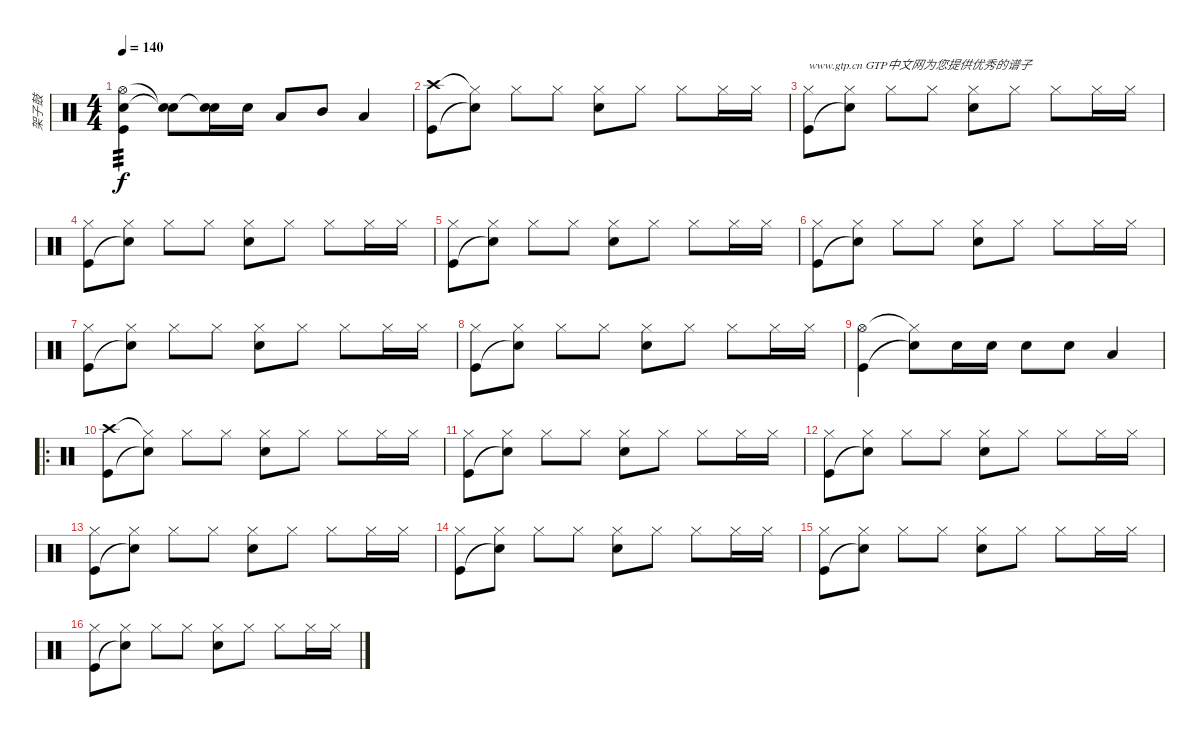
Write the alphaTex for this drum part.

\track ("架子鼓" "架子鼓") {instrument percussion}
\staff {score}
\articulation defaults
\ts (4 4)
\tempo 140
\clef neutral
\ks c
("Hi-Hat (open)" "Snare (hit) 2" "Kick (hit)").4{tp 3 dy f} ("Snare (hit)"{t} "Snare (hit)"{t}).8 ("Snare (hit)"{t} "Snare (hit) 2").16 "Snare (hit) 2".16 "Low Tom (hit)".8 "Mid Tom (hit)".8 "Low Tom (hit)".4 |
("Crash high (hit)" "Kick (hit)").8 ("Hi-Hat (closed)"{t} "Snare (hit)"{t}).8 "Hi-Hat (closed)".8 "Hi-Hat (closed)".8 ("Hi-Hat (closed)" "Snare (hit) 2").8 "Hi-Hat (closed)".8 "Hi-Hat (closed)".8 "Hi-Hat (closed)".16 "Hi-Hat (closed)".16 |
("Hi-Hat (closed)" "Kick (hit)").8{txt "www.gtp.cn GTP中文网为您提供优秀的谱子"} ("Hi-Hat (closed)" "Snare (hit)"{t}).8 "Hi-Hat (closed)".8 "Hi-Hat (closed)".8 ("Hi-Hat (closed)" "Snare (hit) 2").8 "Hi-Hat (closed)".8 "Hi-Hat (closed)".8 "Hi-Hat (closed)".16 "Hi-Hat (closed)".16 |
("Hi-Hat (closed)" "Kick (hit)").8 ("Hi-Hat (closed)" "Snare (hit)"{t}).8 "Hi-Hat (closed)".8 "Hi-Hat (closed)".8 ("Hi-Hat (closed)" "Snare (hit) 2").8 "Hi-Hat (closed)".8 "Hi-Hat (closed)".8 "Hi-Hat (closed)".16 "Hi-Hat (closed)".16 |
("Hi-Hat (closed)" "Kick (hit)").8 ("Hi-Hat (closed)" "Snare (hit)"{t}).8 "Hi-Hat (closed)".8 "Hi-Hat (closed)".8 ("Hi-Hat (closed)" "Snare (hit) 2").8 "Hi-Hat (closed)".8 "Hi-Hat (closed)".8 "Hi-Hat (closed)".16 "Hi-Hat (closed)".16 |
("Hi-Hat (closed)" "Kick (hit)").8 ("Hi-Hat (closed)" "Snare (hit)"{t}).8 "Hi-Hat (closed)".8 "Hi-Hat (closed)".8 ("Hi-Hat (closed)" "Snare (hit) 2").8 "Hi-Hat (closed)".8 "Hi-Hat (closed)".8 "Hi-Hat (closed)".16 "Hi-Hat (closed)".16 |
("Hi-Hat (closed)" "Kick (hit)").8 ("Hi-Hat (closed)" "Snare (hit)"{t}).8 "Hi-Hat (closed)".8 "Hi-Hat (closed)".8 ("Hi-Hat (closed)" "Snare (hit) 2").8 "Hi-Hat (closed)".8 "Hi-Hat (closed)".8 "Hi-Hat (closed)".16 "Hi-Hat (closed)".16 |
("Hi-Hat (closed)" "Kick (hit)").8 ("Hi-Hat (closed)" "Snare (hit)"{t}).8 "Hi-Hat (closed)".8 "Hi-Hat (closed)".8 ("Hi-Hat (closed)" "Snare (hit) 2").8 "Hi-Hat (closed)".8 "Hi-Hat (closed)".8 "Hi-Hat (closed)".16 "Hi-Hat (closed)".16 |
("Hi-Hat (open)" "Kick (hit)").4 ("Hi-Hat (closed)"{t} "Snare (hit)"{t}).8 "Snare (hit) 2".16 "Snare (hit) 2".16 "Snare (hit) 2".8 "Snare (hit) 2".8 "Low Tom (hit)".4 |
\ro
("Crash high (hit)" "Kick (hit)").8 ("Hi-Hat (closed)"{t} "Snare (hit)"{t}).8 "Hi-Hat (closed)".8 "Hi-Hat (closed)".8 ("Hi-Hat (closed)" "Snare (hit) 2").8 "Hi-Hat (closed)".8 "Hi-Hat (closed)".8 "Hi-Hat (closed)".16 "Hi-Hat (closed)".16 |
("Hi-Hat (closed)" "Kick (hit)").8 ("Hi-Hat (closed)" "Snare (hit)"{t}).8 "Hi-Hat (closed)".8 "Hi-Hat (closed)".8 ("Hi-Hat (closed)" "Snare (hit) 2").8 "Hi-Hat (closed)".8 "Hi-Hat (closed)".8 "Hi-Hat (closed)".16 "Hi-Hat (closed)".16 |
("Hi-Hat (closed)" "Kick (hit)").8 ("Hi-Hat (closed)" "Snare (hit)"{t}).8 "Hi-Hat (closed)".8 "Hi-Hat (closed)".8 ("Hi-Hat (closed)" "Snare (hit) 2").8 "Hi-Hat (closed)".8 "Hi-Hat (closed)".8 "Hi-Hat (closed)".16 "Hi-Hat (closed)".16 |
("Hi-Hat (closed)" "Kick (hit)").8 ("Hi-Hat (closed)" "Snare (hit)"{t}).8 "Hi-Hat (closed)".8 "Hi-Hat (closed)".8 ("Hi-Hat (closed)" "Snare (hit) 2").8 "Hi-Hat (closed)".8 "Hi-Hat (closed)".8 "Hi-Hat (closed)".16 "Hi-Hat (closed)".16 |
("Hi-Hat (closed)" "Kick (hit)").8 ("Hi-Hat (closed)" "Snare (hit)"{t}).8 "Hi-Hat (closed)".8 "Hi-Hat (closed)".8 ("Hi-Hat (closed)" "Snare (hit) 2").8 "Hi-Hat (closed)".8 "Hi-Hat (closed)".8 "Hi-Hat (closed)".16 "Hi-Hat (closed)".16 |
("Hi-Hat (closed)" "Kick (hit)").8 ("Hi-Hat (closed)" "Snare (hit)"{t}).8 "Hi-Hat (closed)".8 "Hi-Hat (closed)".8 ("Hi-Hat (closed)" "Snare (hit) 2").8 "Hi-Hat (closed)".8 "Hi-Hat (closed)".8 "Hi-Hat (closed)".16 "Hi-Hat (closed)".16 |
("Hi-Hat (closed)" "Kick (hit)").8 ("Hi-Hat (closed)" "Snare (hit)"{t}).8 "Hi-Hat (closed)".8 "Hi-Hat (closed)".8 ("Hi-Hat (closed)" "Snare (hit) 2").8 "Hi-Hat (closed)".8 "Hi-Hat (closed)".8 "Hi-Hat (closed)".16 "Hi-Hat (closed)".16
